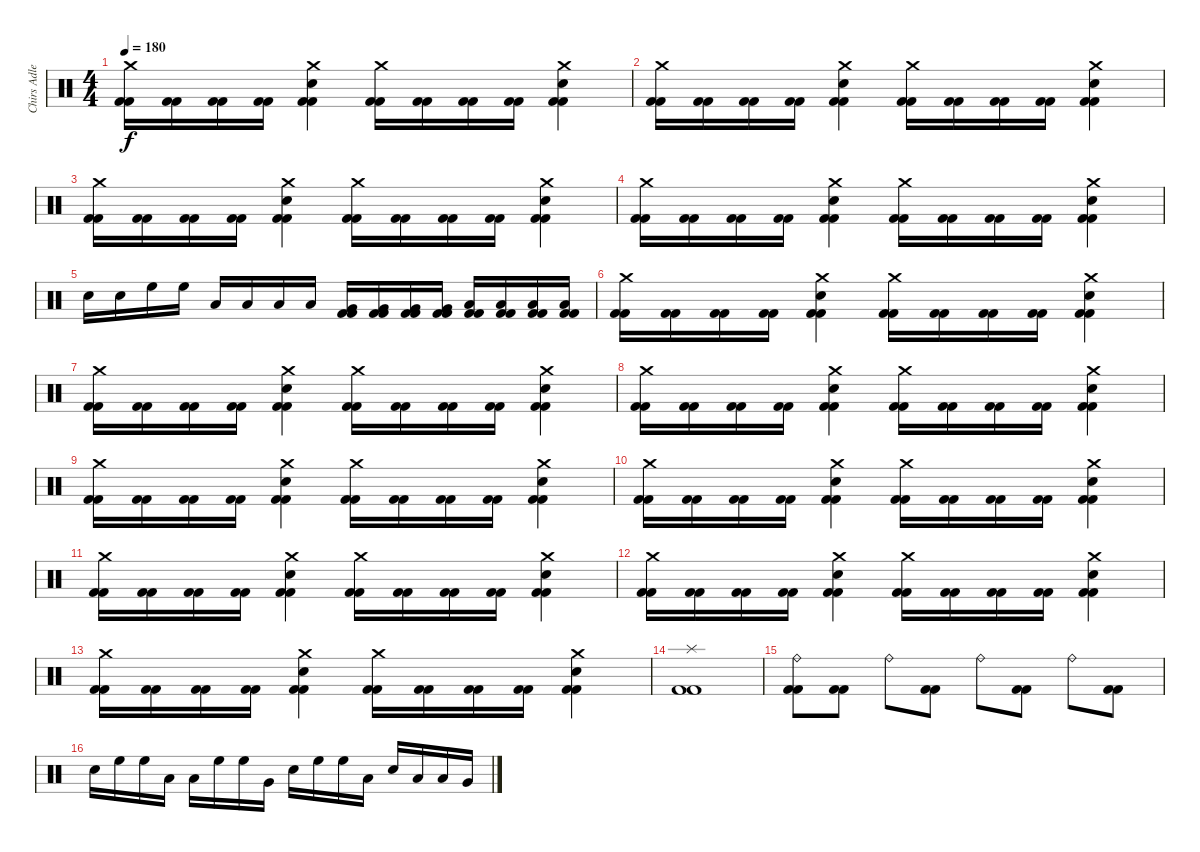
\track ("Chirs Adler" "Chirs Adle") {instrument percussion}
\staff {score}
\articulation defaults
\ts (4 4)
\tempo 180
\clef neutral
\ks c
("Crash medium (hit)" "Kick (hit) 2" "Kick (hit) 2").16{dy f} ("Kick (hit) 2" "Kick (hit) 2").16 ("Kick (hit) 2" "Kick (hit) 2").16 ("Kick (hit) 2" "Kick (hit) 2").16 ("Crash medium (hit)" "Electric Snare (hit)" "Kick (hit) 2" "Kick (hit) 2").4 ("Crash medium (hit)" "Kick (hit) 2" "Kick (hit) 2").16 ("Kick (hit) 2" "Kick (hit) 2").16 ("Kick (hit) 2" "Kick (hit) 2").16 ("Kick (hit) 2" "Kick (hit) 2").16 ("Crash medium (hit)" "Electric Snare (hit)" "Kick (hit) 2" "Kick (hit) 2").4 |
("Crash medium (hit)" "Kick (hit) 2" "Kick (hit) 2").16 ("Kick (hit) 2" "Kick (hit) 2").16 ("Kick (hit) 2" "Kick (hit) 2").16 ("Kick (hit) 2" "Kick (hit) 2").16 ("Crash medium (hit)" "Electric Snare (hit)" "Kick (hit) 2" "Kick (hit) 2").4 ("Crash medium (hit)" "Kick (hit) 2" "Kick (hit) 2").16 ("Kick (hit) 2" "Kick (hit) 2").16 ("Kick (hit) 2" "Kick (hit) 2").16 ("Kick (hit) 2" "Kick (hit) 2").16 ("Crash medium (hit)" "Electric Snare (hit)" "Kick (hit) 2" "Kick (hit) 2").4 |
("Crash medium (hit)" "Kick (hit) 2" "Kick (hit) 2").16 ("Kick (hit) 2" "Kick (hit) 2").16 ("Kick (hit) 2" "Kick (hit) 2").16 ("Kick (hit) 2" "Kick (hit) 2").16 ("Crash medium (hit)" "Electric Snare (hit)" "Kick (hit) 2" "Kick (hit) 2").4 ("Crash medium (hit)" "Kick (hit) 2" "Kick (hit) 2").16 ("Kick (hit) 2" "Kick (hit) 2").16 ("Kick (hit) 2" "Kick (hit) 2").16 ("Kick (hit) 2" "Kick (hit) 2").16 ("Crash medium (hit)" "Electric Snare (hit)" "Kick (hit) 2" "Kick (hit) 2").4 |
("Crash medium (hit)" "Kick (hit) 2" "Kick (hit) 2").16 ("Kick (hit) 2" "Kick (hit) 2").16 ("Kick (hit) 2" "Kick (hit) 2").16 ("Kick (hit) 2" "Kick (hit) 2").16 ("Crash medium (hit)" "Electric Snare (hit)" "Kick (hit) 2" "Kick (hit) 2").4 ("Crash medium (hit)" "Kick (hit) 2" "Kick (hit) 2").16 ("Kick (hit) 2" "Kick (hit) 2").16 ("Kick (hit) 2" "Kick (hit) 2").16 ("Kick (hit) 2" "Kick (hit) 2").16 ("Crash medium (hit)" "Electric Snare (hit)" "Kick (hit) 2" "Kick (hit) 2").4 |
"Electric Snare (hit)".16 "Electric Snare (hit)".16 "High Floor Tom (hit)".16 "High Floor Tom (hit)".16 "Low Tom (hit)".16 "Low Tom (hit)".16 "Low Tom (hit)".16 "Low Tom (hit)".16 ("Very Low Tom (hit)" "Kick (hit) 2" "Kick (hit) 2").16 ("Very Low Tom (hit)" "Kick (hit) 2" "Kick (hit) 2").16 ("Very Low Tom (hit)" "Kick (hit) 2" "Kick (hit) 2").16 ("Very Low Tom (hit)" "Kick (hit) 2" "Kick (hit) 2").16 ("Low Floor Tom (hit)" "Kick (hit) 2" "Kick (hit) 2").16 ("Low Floor Tom (hit)" "Kick (hit) 2" "Kick (hit) 2").16 ("Low Floor Tom (hit)" "Kick (hit) 2" "Kick (hit) 2").16 ("Low Floor Tom (hit)" "Kick (hit) 2" "Kick (hit) 2").16 |
\section ("" "")
("Crash medium (hit)" "Kick (hit) 2" "Kick (hit) 2").16 ("Kick (hit) 2" "Kick (hit) 2").16 ("Kick (hit) 2" "Kick (hit) 2").16 ("Kick (hit) 2" "Kick (hit) 2").16 ("Crash medium (hit)" "Electric Snare (hit)" "Kick (hit) 2" "Kick (hit) 2").4 ("Crash medium (hit)" "Kick (hit) 2" "Kick (hit) 2").16 ("Kick (hit) 2" "Kick (hit) 2").16 ("Kick (hit) 2" "Kick (hit) 2").16 ("Kick (hit) 2" "Kick (hit) 2").16 ("Crash medium (hit)" "Electric Snare (hit)" "Kick (hit) 2" "Kick (hit) 2").4 |
("Crash medium (hit)" "Kick (hit) 2" "Kick (hit) 2").16 ("Kick (hit) 2" "Kick (hit) 2").16 ("Kick (hit) 2" "Kick (hit) 2").16 ("Kick (hit) 2" "Kick (hit) 2").16 ("Crash medium (hit)" "Electric Snare (hit)" "Kick (hit) 2" "Kick (hit) 2").4 ("Crash medium (hit)" "Kick (hit) 2" "Kick (hit) 2").16 ("Kick (hit) 2" "Kick (hit) 2").16 ("Kick (hit) 2" "Kick (hit) 2").16 ("Kick (hit) 2" "Kick (hit) 2").16 ("Crash medium (hit)" "Electric Snare (hit)" "Kick (hit) 2" "Kick (hit) 2").4 |
("Crash medium (hit)" "Kick (hit) 2" "Kick (hit) 2").16 ("Kick (hit) 2" "Kick (hit) 2").16 ("Kick (hit) 2" "Kick (hit) 2").16 ("Kick (hit) 2" "Kick (hit) 2").16 ("Crash medium (hit)" "Electric Snare (hit)" "Kick (hit) 2" "Kick (hit) 2").4 ("Crash medium (hit)" "Kick (hit) 2" "Kick (hit) 2").16 ("Kick (hit) 2" "Kick (hit) 2").16 ("Kick (hit) 2" "Kick (hit) 2").16 ("Kick (hit) 2" "Kick (hit) 2").16 ("Crash medium (hit)" "Electric Snare (hit)" "Kick (hit) 2" "Kick (hit) 2").4 |
("Crash medium (hit)" "Kick (hit) 2" "Kick (hit) 2").16 ("Kick (hit) 2" "Kick (hit) 2").16 ("Kick (hit) 2" "Kick (hit) 2").16 ("Kick (hit) 2" "Kick (hit) 2").16 ("Crash medium (hit)" "Electric Snare (hit)" "Kick (hit) 2" "Kick (hit) 2").4 ("Crash medium (hit)" "Kick (hit) 2" "Kick (hit) 2").16 ("Kick (hit) 2" "Kick (hit) 2").16 ("Kick (hit) 2" "Kick (hit) 2").16 ("Kick (hit) 2" "Kick (hit) 2").16 ("Crash medium (hit)" "Electric Snare (hit)" "Kick (hit) 2" "Kick (hit) 2").4 |
("Crash medium (hit)" "Kick (hit) 2" "Kick (hit) 2").16 ("Kick (hit) 2" "Kick (hit) 2").16 ("Kick (hit) 2" "Kick (hit) 2").16 ("Kick (hit) 2" "Kick (hit) 2").16 ("Crash medium (hit)" "Electric Snare (hit)" "Kick (hit) 2" "Kick (hit) 2").4 ("Crash medium (hit)" "Kick (hit) 2" "Kick (hit) 2").16 ("Kick (hit) 2" "Kick (hit) 2").16 ("Kick (hit) 2" "Kick (hit) 2").16 ("Kick (hit) 2" "Kick (hit) 2").16 ("Crash medium (hit)" "Electric Snare (hit)" "Kick (hit) 2" "Kick (hit) 2").4 |
("Crash medium (hit)" "Kick (hit) 2" "Kick (hit) 2").16 ("Kick (hit) 2" "Kick (hit) 2").16 ("Kick (hit) 2" "Kick (hit) 2").16 ("Kick (hit) 2" "Kick (hit) 2").16 ("Crash medium (hit)" "Electric Snare (hit)" "Kick (hit) 2" "Kick (hit) 2").4 ("Crash medium (hit)" "Kick (hit) 2" "Kick (hit) 2").16 ("Kick (hit) 2" "Kick (hit) 2").16 ("Kick (hit) 2" "Kick (hit) 2").16 ("Kick (hit) 2" "Kick (hit) 2").16 ("Crash medium (hit)" "Electric Snare (hit)" "Kick (hit) 2" "Kick (hit) 2").4 |
("Crash medium (hit)" "Kick (hit) 2" "Kick (hit) 2").16 ("Kick (hit) 2" "Kick (hit) 2").16 ("Kick (hit) 2" "Kick (hit) 2").16 ("Kick (hit) 2" "Kick (hit) 2").16 ("Crash medium (hit)" "Electric Snare (hit)" "Kick (hit) 2" "Kick (hit) 2").4 ("Crash medium (hit)" "Kick (hit) 2" "Kick (hit) 2").16 ("Kick (hit) 2" "Kick (hit) 2").16 ("Kick (hit) 2" "Kick (hit) 2").16 ("Kick (hit) 2" "Kick (hit) 2").16 ("Crash medium (hit)" "Electric Snare (hit)" "Kick (hit) 2" "Kick (hit) 2").4 |
("Crash medium (hit)" "Kick (hit) 2" "Kick (hit) 2").16 ("Kick (hit) 2" "Kick (hit) 2").16 ("Kick (hit) 2" "Kick (hit) 2").16 ("Kick (hit) 2" "Kick (hit) 2").16 ("Crash medium (hit)" "Electric Snare (hit)" "Kick (hit) 2" "Kick (hit) 2").4 ("Crash medium (hit)" "Kick (hit) 2" "Kick (hit) 2").16 ("Kick (hit) 2" "Kick (hit) 2").16 ("Kick (hit) 2" "Kick (hit) 2").16 ("Kick (hit) 2" "Kick (hit) 2").16 ("Crash medium (hit)" "Electric Snare (hit)" "Kick (hit) 2" "Kick (hit) 2").4 |
\section ("" "")
("Splash (hit)" "Kick (hit) 2" "Kick (hit) 2").1 |
("Ride (bell)" "Kick (hit) 2" "Kick (hit) 2").8 ("Kick (hit) 2" "Kick (hit) 2").8 "Ride (bell)".8 ("Kick (hit) 2" "Kick (hit) 2").8 "Ride (bell)".8 ("Kick (hit) 2" "Kick (hit) 2").8 "Ride (bell)".8 ("Kick (hit) 2" "Kick (hit) 2").8 |
"Electric Snare (hit)".16 "High Floor Tom (hit)".16 "High Floor Tom (hit)".16 "Low Tom (hit)".16 "Low Tom (hit)".16 "High Floor Tom (hit)".16 "High Floor Tom (hit)".16 "Very Low Tom (hit)".16 "Electric Snare (hit)".16 "High Floor Tom (hit)".16 "High Floor Tom (hit)".16 "Low Tom (hit)".16 "Electric Snare (hit)".16 "Low Tom (hit)".16 "Low Tom (hit)".16 "Very Low Tom (hit)".16
